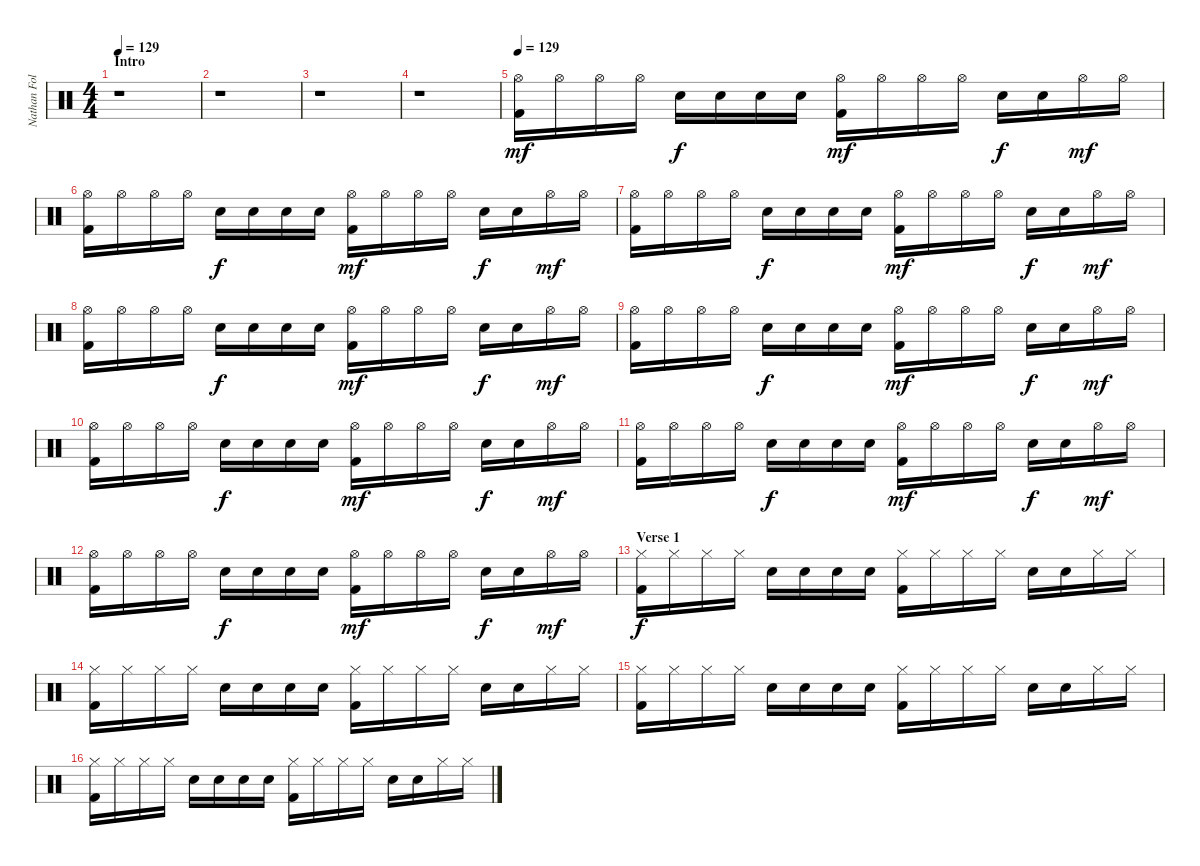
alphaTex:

\track ("Nathan Followill" "Nathan Fol") {instrument percussion}
\staff {score}
\articulation defaults
\ts (4 4)
\section ("" "Intro")
\tempo 129
\tempo 123
\tempo 129
\clef neutral
\ks c
r.1{dy mf} |
r.1 |
r.1 |
r.1 |
\section ("" "")
\tempo 129
("Hi-Hat (open)" "Kick (hit) 2").16 "Hi-Hat (open)".16 "Hi-Hat (open)".16 "Hi-Hat (open)".16 "Electric Snare (hit)".16{dy f} "Electric Snare (hit)".16 "Electric Snare (hit)".16 "Electric Snare (hit)".16 ("Hi-Hat (open)" "Kick (hit) 2").16{dy mf} "Hi-Hat (open)".16 "Hi-Hat (open)".16 "Hi-Hat (open)".16 "Electric Snare (hit)".16{dy f} "Electric Snare (hit)".16 "Hi-Hat (open)".16{dy mf} "Hi-Hat (open)".16 |
("Hi-Hat (open)" "Kick (hit) 2").16 "Hi-Hat (open)".16 "Hi-Hat (open)".16 "Hi-Hat (open)".16 "Electric Snare (hit)".16{dy f} "Electric Snare (hit)".16 "Electric Snare (hit)".16 "Electric Snare (hit)".16 ("Hi-Hat (open)" "Kick (hit) 2").16{dy mf} "Hi-Hat (open)".16 "Hi-Hat (open)".16 "Hi-Hat (open)".16 "Electric Snare (hit)".16{dy f} "Electric Snare (hit)".16 "Hi-Hat (open)".16{dy mf} "Hi-Hat (open)".16 |
("Hi-Hat (open)" "Kick (hit) 2").16 "Hi-Hat (open)".16 "Hi-Hat (open)".16 "Hi-Hat (open)".16 "Electric Snare (hit)".16{dy f} "Electric Snare (hit)".16 "Electric Snare (hit)".16 "Electric Snare (hit)".16 ("Hi-Hat (open)" "Kick (hit) 2").16{dy mf} "Hi-Hat (open)".16 "Hi-Hat (open)".16 "Hi-Hat (open)".16 "Electric Snare (hit)".16{dy f} "Electric Snare (hit)".16 "Hi-Hat (open)".16{dy mf} "Hi-Hat (open)".16 |
("Hi-Hat (open)" "Kick (hit) 2").16 "Hi-Hat (open)".16 "Hi-Hat (open)".16 "Hi-Hat (open)".16 "Electric Snare (hit)".16{dy f} "Electric Snare (hit)".16 "Electric Snare (hit)".16 "Electric Snare (hit)".16 ("Hi-Hat (open)" "Kick (hit) 2").16{dy mf} "Hi-Hat (open)".16 "Hi-Hat (open)".16 "Hi-Hat (open)".16 "Electric Snare (hit)".16{dy f} "Electric Snare (hit)".16 "Hi-Hat (open)".16{dy mf} "Hi-Hat (open)".16 |
("Hi-Hat (open)" "Kick (hit) 2").16 "Hi-Hat (open)".16 "Hi-Hat (open)".16 "Hi-Hat (open)".16 "Electric Snare (hit)".16{dy f} "Electric Snare (hit)".16 "Electric Snare (hit)".16 "Electric Snare (hit)".16 ("Hi-Hat (open)" "Kick (hit) 2").16{dy mf} "Hi-Hat (open)".16 "Hi-Hat (open)".16 "Hi-Hat (open)".16 "Electric Snare (hit)".16{dy f} "Electric Snare (hit)".16 "Hi-Hat (open)".16{dy mf} "Hi-Hat (open)".16 |
("Hi-Hat (open)" "Kick (hit) 2").16 "Hi-Hat (open)".16 "Hi-Hat (open)".16 "Hi-Hat (open)".16 "Electric Snare (hit)".16{dy f} "Electric Snare (hit)".16 "Electric Snare (hit)".16 "Electric Snare (hit)".16 ("Hi-Hat (open)" "Kick (hit) 2").16{dy mf} "Hi-Hat (open)".16 "Hi-Hat (open)".16 "Hi-Hat (open)".16 "Electric Snare (hit)".16{dy f} "Electric Snare (hit)".16 "Hi-Hat (open)".16{dy mf} "Hi-Hat (open)".16 |
("Hi-Hat (open)" "Kick (hit) 2").16 "Hi-Hat (open)".16 "Hi-Hat (open)".16 "Hi-Hat (open)".16 "Electric Snare (hit)".16{dy f} "Electric Snare (hit)".16 "Electric Snare (hit)".16 "Electric Snare (hit)".16 ("Hi-Hat (open)" "Kick (hit) 2").16{dy mf} "Hi-Hat (open)".16 "Hi-Hat (open)".16 "Hi-Hat (open)".16 "Electric Snare (hit)".16{dy f} "Electric Snare (hit)".16 "Hi-Hat (open)".16{dy mf} "Hi-Hat (open)".16 |
("Hi-Hat (open)" "Kick (hit) 2").16 "Hi-Hat (open)".16 "Hi-Hat (open)".16 "Hi-Hat (open)".16 "Electric Snare (hit)".16{dy f} "Electric Snare (hit)".16 "Electric Snare (hit)".16 "Electric Snare (hit)".16 ("Hi-Hat (open)" "Kick (hit) 2").16{dy mf} "Hi-Hat (open)".16 "Hi-Hat (open)".16 "Hi-Hat (open)".16 "Electric Snare (hit)".16{dy f} "Electric Snare (hit)".16 "Hi-Hat (open)".16{dy mf} "Hi-Hat (open)".16 |
\section ("" "Verse 1")
("Hi-Hat (closed)" "Kick (hit) 2").16{dy f} "Hi-Hat (closed)".16 "Hi-Hat (closed)".16 "Hi-Hat (closed)".16 "Electric Snare (hit)".16 "Electric Snare (hit)".16 "Electric Snare (hit)".16 "Electric Snare (hit)".16 ("Hi-Hat (closed)" "Kick (hit) 2").16 "Hi-Hat (closed)".16 "Hi-Hat (closed)".16 "Hi-Hat (closed)".16 "Electric Snare (hit)".16 "Electric Snare (hit)".16 "Hi-Hat (closed)".16 "Hi-Hat (closed)".16 |
("Hi-Hat (closed)" "Kick (hit) 2").16 "Hi-Hat (closed)".16 "Hi-Hat (closed)".16 "Hi-Hat (closed)".16 "Electric Snare (hit)".16 "Electric Snare (hit)".16 "Electric Snare (hit)".16 "Electric Snare (hit)".16 ("Hi-Hat (closed)" "Kick (hit) 2").16 "Hi-Hat (closed)".16 "Hi-Hat (closed)".16 "Hi-Hat (closed)".16 "Electric Snare (hit)".16 "Electric Snare (hit)".16 "Hi-Hat (closed)".16 "Hi-Hat (closed)".16 |
("Hi-Hat (closed)" "Kick (hit) 2").16 "Hi-Hat (closed)".16 "Hi-Hat (closed)".16 "Hi-Hat (closed)".16 "Electric Snare (hit)".16 "Electric Snare (hit)".16 "Electric Snare (hit)".16 "Electric Snare (hit)".16 ("Hi-Hat (closed)" "Kick (hit) 2").16 "Hi-Hat (closed)".16 "Hi-Hat (closed)".16 "Hi-Hat (closed)".16 "Electric Snare (hit)".16 "Electric Snare (hit)".16 "Hi-Hat (closed)".16 "Hi-Hat (closed)".16 |
("Hi-Hat (closed)" "Kick (hit) 2").16 "Hi-Hat (closed)".16 "Hi-Hat (closed)".16 "Hi-Hat (closed)".16 "Electric Snare (hit)".16 "Electric Snare (hit)".16 "Electric Snare (hit)".16 "Electric Snare (hit)".16 ("Hi-Hat (closed)" "Kick (hit) 2").16 "Hi-Hat (closed)".16 "Hi-Hat (closed)".16 "Hi-Hat (closed)".16 "Electric Snare (hit)".16 "Electric Snare (hit)".16 "Hi-Hat (closed)".16 "Hi-Hat (closed)".16
